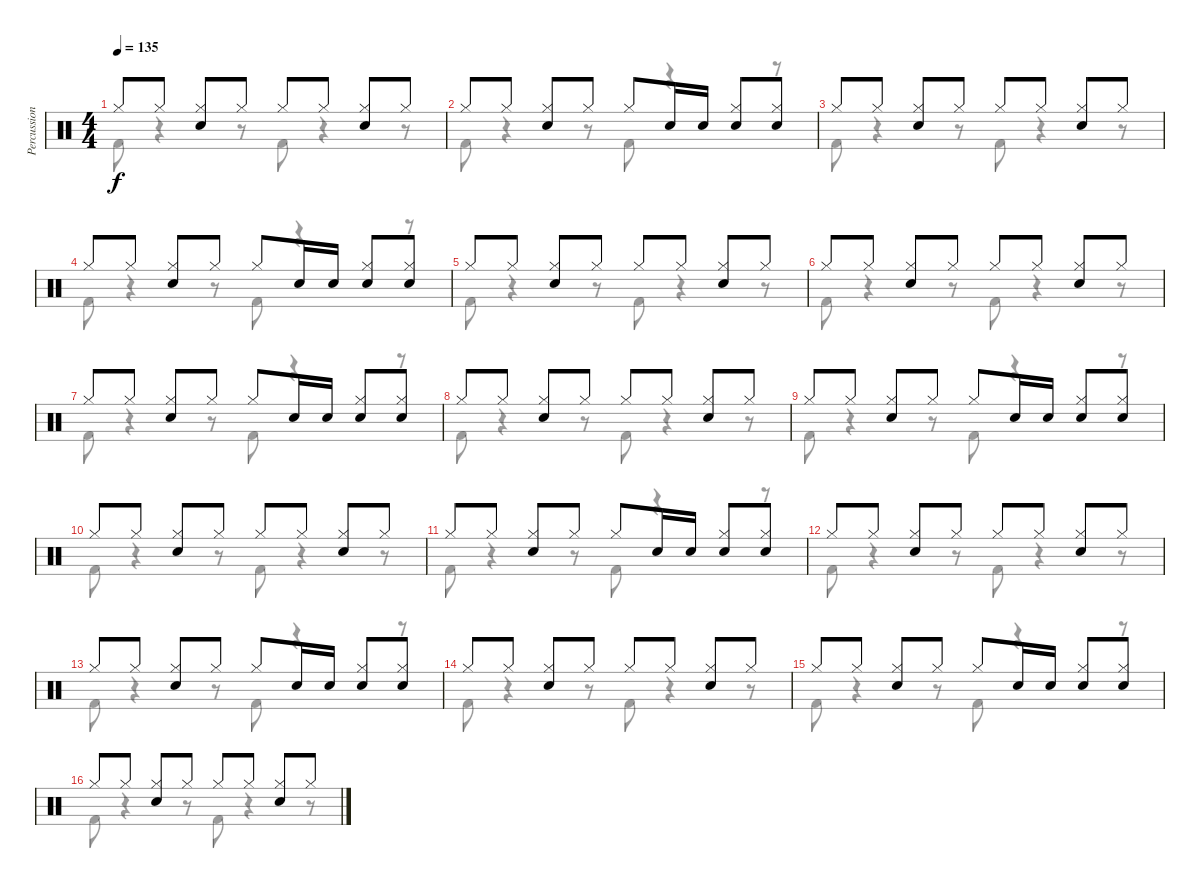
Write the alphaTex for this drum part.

\track ("Percussion" "Percussion") {instrument percussion}
\staff {score}
\articulation defaults
\voice
\ts (4 4)
\tempo 135
\clef neutral
\ks c "Hi-Hat (closed)".8{dy f} "Hi-Hat (closed)".8
("Hi-Hat (closed)" "Snare (hit) 2").8 "Hi-Hat (closed)".8 "Hi-Hat (closed)".8 "Hi-Hat (closed)".8 ("Hi-Hat (closed)" "Snare (hit) 2").8 "Hi-Hat (closed)".8 |
"Hi-Hat (closed)".8 "Hi-Hat (closed)".8 ("Hi-Hat (closed)" "Snare (hit) 2").8 "Hi-Hat (closed)".8 "Hi-Hat (closed)".8 "Snare (hit) 2".16 "Snare (hit) 2".16 ("Hi-Hat (closed)" "Snare (hit) 2").8 ("Hi-Hat (closed)" "Snare (hit) 2").8 |
"Hi-Hat (closed)".8 "Hi-Hat (closed)".8 ("Hi-Hat (closed)" "Snare (hit) 2").8 "Hi-Hat (closed)".8 "Hi-Hat (closed)".8 "Hi-Hat (closed)".8 ("Hi-Hat (closed)" "Snare (hit) 2").8 "Hi-Hat (closed)".8 |
"Hi-Hat (closed)".8 "Hi-Hat (closed)".8 ("Hi-Hat (closed)" "Snare (hit) 2").8 "Hi-Hat (closed)".8 "Hi-Hat (closed)".8 "Snare (hit) 2".16 "Snare (hit) 2".16 ("Hi-Hat (closed)" "Snare (hit) 2").8 ("Hi-Hat (closed)" "Snare (hit) 2").8 |
"Hi-Hat (closed)".8 "Hi-Hat (closed)".8 ("Hi-Hat (closed)" "Snare (hit) 2").8 "Hi-Hat (closed)".8 "Hi-Hat (closed)".8 "Hi-Hat (closed)".8 ("Hi-Hat (closed)" "Snare (hit) 2").8 "Hi-Hat (closed)".8 |
"Hi-Hat (closed)".8 "Hi-Hat (closed)".8 ("Hi-Hat (closed)" "Snare (hit) 2").8 "Hi-Hat (closed)".8 "Hi-Hat (closed)".8 "Hi-Hat (closed)".8 ("Hi-Hat (closed)" "Snare (hit) 2").8 "Hi-Hat (closed)".8 |
"Hi-Hat (closed)".8 "Hi-Hat (closed)".8 ("Hi-Hat (closed)" "Snare (hit) 2").8 "Hi-Hat (closed)".8 "Hi-Hat (closed)".8 "Snare (hit) 2".16 "Snare (hit) 2".16 ("Hi-Hat (closed)" "Snare (hit) 2").8 ("Hi-Hat (closed)" "Snare (hit) 2").8 |
"Hi-Hat (closed)".8 "Hi-Hat (closed)".8 ("Hi-Hat (closed)" "Snare (hit) 2").8 "Hi-Hat (closed)".8 "Hi-Hat (closed)".8 "Hi-Hat (closed)".8 ("Hi-Hat (closed)" "Snare (hit) 2").8 "Hi-Hat (closed)".8 |
"Hi-Hat (closed)".8 "Hi-Hat (closed)".8 ("Hi-Hat (closed)" "Snare (hit) 2").8 "Hi-Hat (closed)".8 "Hi-Hat (closed)".8 "Snare (hit) 2".16 "Snare (hit) 2".16 ("Hi-Hat (closed)" "Snare (hit) 2").8 ("Hi-Hat (closed)" "Snare (hit) 2").8 |
"Hi-Hat (closed)".8 "Hi-Hat (closed)".8 ("Hi-Hat (closed)" "Snare (hit) 2").8 "Hi-Hat (closed)".8 "Hi-Hat (closed)".8 "Hi-Hat (closed)".8 ("Hi-Hat (closed)" "Snare (hit) 2").8 "Hi-Hat (closed)".8 |
"Hi-Hat (closed)".8 "Hi-Hat (closed)".8 ("Hi-Hat (closed)" "Snare (hit) 2").8 "Hi-Hat (closed)".8 "Hi-Hat (closed)".8 "Snare (hit) 2".16 "Snare (hit) 2".16 ("Hi-Hat (closed)" "Snare (hit) 2").8 ("Hi-Hat (closed)" "Snare (hit) 2").8 |
"Hi-Hat (closed)".8 "Hi-Hat (closed)".8 ("Hi-Hat (closed)" "Snare (hit) 2").8 "Hi-Hat (closed)".8 "Hi-Hat (closed)".8 "Hi-Hat (closed)".8 ("Hi-Hat (closed)" "Snare (hit) 2").8 "Hi-Hat (closed)".8 |
"Hi-Hat (closed)".8 "Hi-Hat (closed)".8 ("Hi-Hat (closed)" "Snare (hit) 2").8 "Hi-Hat (closed)".8 "Hi-Hat (closed)".8 "Snare (hit) 2".16 "Snare (hit) 2".16 ("Hi-Hat (closed)" "Snare (hit) 2").8 ("Hi-Hat (closed)" "Snare (hit) 2").8 |
"Hi-Hat (closed)".8 "Hi-Hat (closed)".8 ("Hi-Hat (closed)" "Snare (hit) 2").8 "Hi-Hat (closed)".8 "Hi-Hat (closed)".8 "Hi-Hat (closed)".8 ("Hi-Hat (closed)" "Snare (hit) 2").8 "Hi-Hat (closed)".8 |
"Hi-Hat (closed)".8 "Hi-Hat (closed)".8 ("Hi-Hat (closed)" "Snare (hit) 2").8 "Hi-Hat (closed)".8 "Hi-Hat (closed)".8 "Snare (hit) 2".16 "Snare (hit) 2".16 ("Hi-Hat (closed)" "Snare (hit) 2").8 ("Hi-Hat (closed)" "Snare (hit) 2").8 |
"Hi-Hat (closed)".8 "Hi-Hat (closed)".8 ("Hi-Hat (closed)" "Snare (hit) 2").8 "Hi-Hat (closed)".8 "Hi-Hat (closed)".8 "Hi-Hat (closed)".8 ("Hi-Hat (closed)" "Snare (hit) 2").8 "Hi-Hat (closed)".8
\voice
\clef neutral
\ottava regular
\simile none
\ks c "Kick (hit) 2".8{dy f}
r.4 r.8 "Kick (hit) 2".8 r.4 r.8 |
"Kick (hit) 2".8 r.4 r.8 "Kick (hit) 2".8 r.4 r.8 |
"Kick (hit) 2".8 r.4 r.8 "Kick (hit) 2".8 r.4 r.8 |
"Kick (hit) 2".8 r.4 r.8 "Kick (hit) 2".8 r.4 r.8 |
"Kick (hit) 2".8 r.4 r.8 "Kick (hit) 2".8 r.4 r.8 |
"Kick (hit) 2".8 r.4 r.8 "Kick (hit) 2".8 r.4 r.8 |
"Kick (hit) 2".8 r.4 r.8 "Kick (hit) 2".8 r.4 r.8 |
"Kick (hit) 2".8 r.4 r.8 "Kick (hit) 2".8 r.4 r.8 |
"Kick (hit) 2".8 r.4 r.8 "Kick (hit) 2".8 r.4 r.8 |
"Kick (hit) 2".8 r.4 r.8 "Kick (hit) 2".8 r.4 r.8 |
"Kick (hit) 2".8 r.4 r.8 "Kick (hit) 2".8 r.4 r.8 |
"Kick (hit) 2".8 r.4 r.8 "Kick (hit) 2".8 r.4 r.8 |
"Kick (hit) 2".8 r.4 r.8 "Kick (hit) 2".8 r.4 r.8 |
"Kick (hit) 2".8 r.4 r.8 "Kick (hit) 2".8 r.4 r.8 |
"Kick (hit) 2".8 r.4 r.8 "Kick (hit) 2".8 r.4 r.8 |
"Kick (hit) 2".8 r.4 r.8 "Kick (hit) 2".8 r.4 r.8
